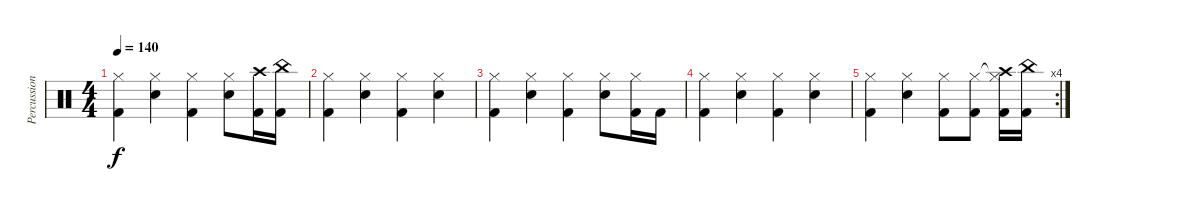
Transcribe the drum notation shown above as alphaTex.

\track ("Percussion" "Percussion") {instrument percussion}
\staff {score}
\articulation defaults
\ts (4 4)
\tempo 140
\clef neutral
\ks c
("Hi-Hat (closed)" "Kick (hit) 2").4{dy f} ("Hi-Hat (closed)" "Snare (hit) 2").4 ("Hi-Hat (closed)" "Kick (hit) 2").4 ("Hi-Hat (closed)" "Snare (hit) 2").8 ("Kick (hit) 2" "Crash high (hit)").16 ("Kick (hit) 2" "China (hit)").16 |
("Hi-Hat (closed)" "Kick (hit) 2").4 ("Hi-Hat (closed)" "Snare (hit) 2").4 ("Hi-Hat (closed)" "Kick (hit) 2").4 ("Hi-Hat (closed)" "Snare (hit) 2").4 |
("Hi-Hat (closed)" "Kick (hit) 2").4 ("Hi-Hat (closed)" "Snare (hit) 2").4 ("Hi-Hat (closed)" "Kick (hit) 2").4 ("Hi-Hat (closed)" "Snare (hit) 2").8 ("Hi-Hat (closed)" "Kick (hit) 2").16 "Kick (hit) 2".16 |
("Hi-Hat (closed)" "Kick (hit) 2").4 ("Hi-Hat (closed)" "Snare (hit) 2").4 ("Hi-Hat (closed)" "Kick (hit) 2").4 ("Hi-Hat (closed)" "Snare (hit) 2").4 |
\rc 4
("Hi-Hat (closed)" "Kick (hit) 2").4 ("Hi-Hat (closed)" "Snare (hit) 2").4 ("Hi-Hat (closed)" "Kick (hit) 2").8 ("Hi-Hat (closed)" "Kick (hit) 2").8 ("Hi-Hat (closed)"{t} "Kick (hit) 2" "Crash high (hit)").16 ("Kick (hit) 2" "China (hit)").16
